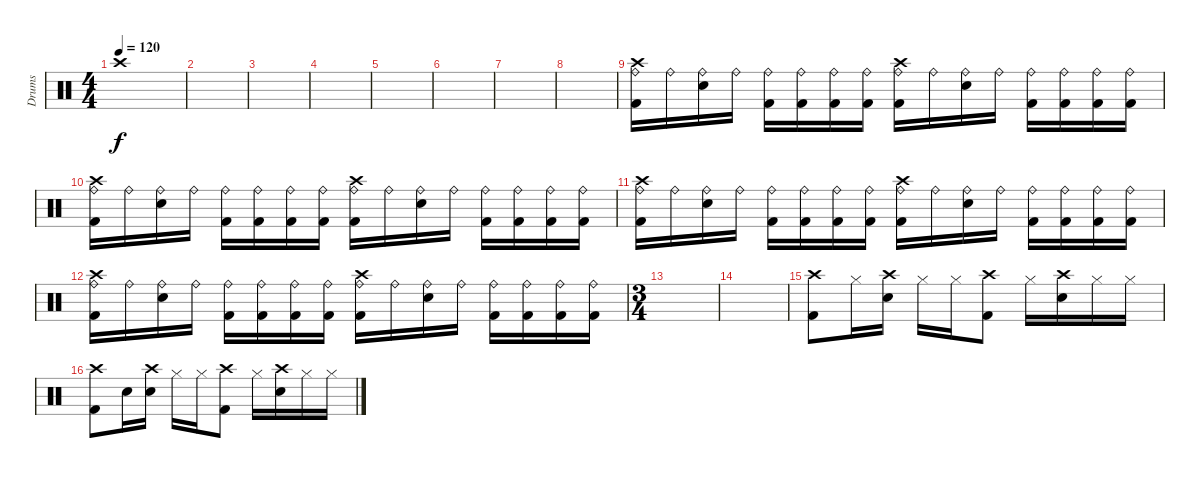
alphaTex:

\track ("Drums" "Drums") {instrument percussion}
\staff {score}
\articulation defaults
\ts (4 4)
\tempo 120
\clef neutral
\ks c "Crash high (hit)".1{dy f}
|
|
|
|
|
|
|
|
("Kick (hit) 2" "Crash high (hit)" "Ride (bell)").16 "Ride (bell)".16 ("Electric Snare (hit)" "Ride (bell)").16 "Ride (bell)".16 ("Kick (hit) 2" "Ride (bell)").16 ("Kick (hit) 2" "Ride (bell)").16 ("Kick (hit) 2" "Ride (bell)").16 ("Kick (hit) 2" "Ride (bell)").16 ("Kick (hit) 2" "Crash high (hit)" "Ride (bell)").16 "Ride (bell)".16 ("Electric Snare (hit)" "Ride (bell)").16 "Ride (bell)".16 ("Kick (hit) 2" "Ride (bell)").16 ("Kick (hit) 2" "Ride (bell)").16 ("Kick (hit) 2" "Ride (bell)").16 ("Kick (hit) 2" "Ride (bell)").16 |
("Kick (hit) 2" "Crash high (hit)" "Ride (bell)").16 "Ride (bell)".16 ("Electric Snare (hit)" "Ride (bell)").16 "Ride (bell)".16 ("Kick (hit) 2" "Ride (bell)").16 ("Kick (hit) 2" "Ride (bell)").16 ("Kick (hit) 2" "Ride (bell)").16 ("Kick (hit) 2" "Ride (bell)").16 ("Kick (hit) 2" "Crash high (hit)" "Ride (bell)").16 "Ride (bell)".16 ("Electric Snare (hit)" "Ride (bell)").16 "Ride (bell)".16 ("Kick (hit) 2" "Ride (bell)").16 ("Kick (hit) 2" "Ride (bell)").16 ("Kick (hit) 2" "Ride (bell)").16 ("Kick (hit) 2" "Ride (bell)").16 |
("Kick (hit) 2" "Crash high (hit)" "Ride (bell)").16 "Ride (bell)".16 ("Electric Snare (hit)" "Ride (bell)").16 "Ride (bell)".16 ("Kick (hit) 2" "Ride (bell)").16 ("Kick (hit) 2" "Ride (bell)").16 ("Kick (hit) 2" "Ride (bell)").16 ("Kick (hit) 2" "Ride (bell)").16 ("Kick (hit) 2" "Crash high (hit)" "Ride (bell)").16 "Ride (bell)".16 ("Electric Snare (hit)" "Ride (bell)").16 "Ride (bell)".16 ("Kick (hit) 2" "Ride (bell)").16 ("Kick (hit) 2" "Ride (bell)").16 ("Kick (hit) 2" "Ride (bell)").16 ("Kick (hit) 2" "Ride (bell)").16 |
("Kick (hit) 2" "Crash high (hit)" "Ride (bell)").16 "Ride (bell)".16 ("Electric Snare (hit)" "Ride (bell)").16 "Ride (bell)".16 ("Kick (hit) 2" "Ride (bell)").16 ("Kick (hit) 2" "Ride (bell)").16 ("Kick (hit) 2" "Ride (bell)").16 ("Kick (hit) 2" "Ride (bell)").16 ("Kick (hit) 2" "Crash high (hit)" "Ride (bell)").16 "Ride (bell)".16 ("Electric Snare (hit)" "Ride (bell)").16 "Ride (bell)".16 ("Kick (hit) 2" "Ride (bell)").16 ("Kick (hit) 2" "Ride (bell)").16 ("Kick (hit) 2" "Ride (bell)").16 ("Kick (hit) 2" "Ride (bell)").16 |
\ts (3 4)
|
|
("Crash high (hit)" "Kick (hit) 2").8 "Hi-Hat (closed)".16 ("Crash high (hit)" "Electric Snare (hit)").16 "Hi-Hat (closed)".16 "Hi-Hat (closed)".16 ("Crash high (hit)" "Kick (hit) 2").8 "Hi-Hat (closed)".16 ("Electric Snare (hit)" "Crash high (hit)").16 "Hi-Hat (closed)".16 "Hi-Hat (closed)".16 |
("Crash high (hit)" "Kick (hit) 2").8 "Snare (hit)".16 ("Crash high (hit)" "Electric Snare (hit)").16 "Hi-Hat (closed)".16 "Hi-Hat (closed)".16 ("Crash high (hit)" "Kick (hit) 2").8 "Hi-Hat (closed)".16 ("Electric Snare (hit)" "Crash high (hit)").16 "Hi-Hat (closed)".16 "Hi-Hat (closed)".16
